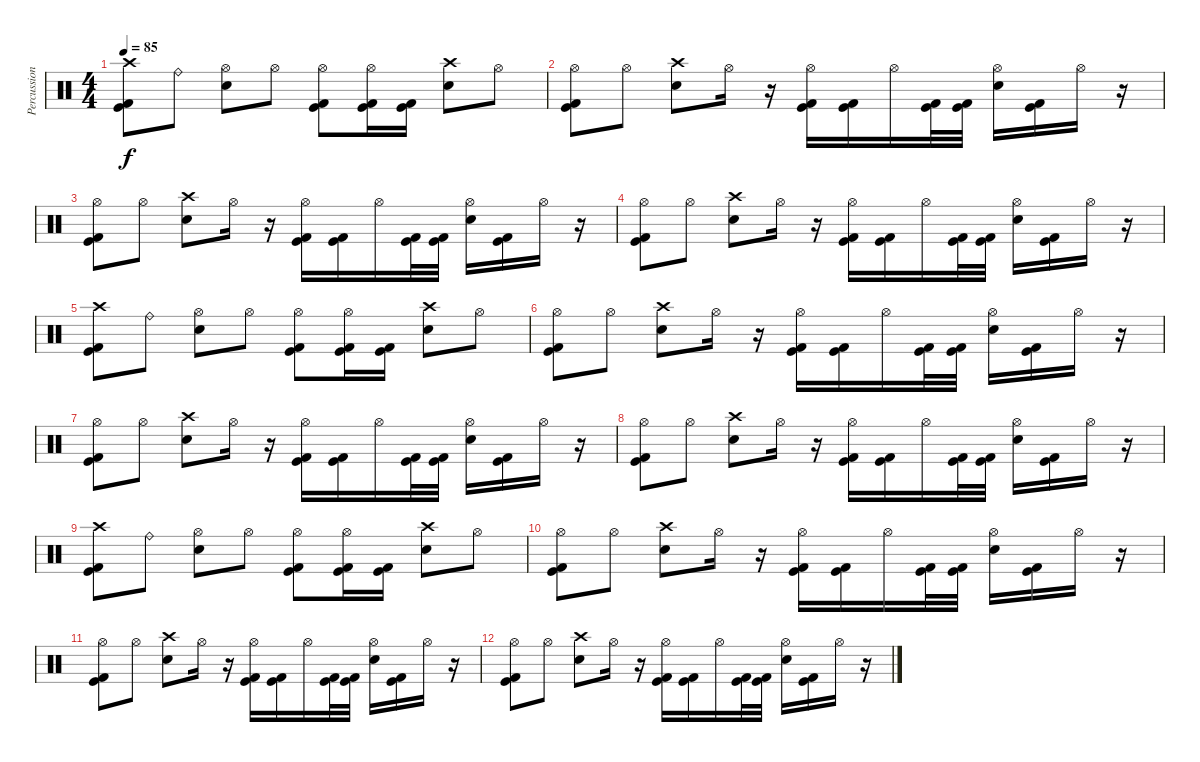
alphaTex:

\track ("Percussion" "Percussion") {instrument percussion}
\staff {score}
\articulation defaults
\ts (4 4)
\tempo 85
\clef neutral
\ks c
("Crash high (hit)" "Kick (hit) 2" "Kick (hit)").8{dy f} "Ride (bell)".8 ("Hi-Hat (open)" "Electric Snare (hit)").8 "Hi-Hat (open)".8 ("Hi-Hat (open)" "Kick (hit) 2" "Kick (hit)").8 ("Hi-Hat (open)" "Kick (hit) 2" "Kick (hit)").16 ("Kick (hit) 2" "Kick (hit)").16 ("Crash high (hit)" "Electric Snare (hit)").8 "Hi-Hat (open)".8 |
("Hi-Hat (open)" "Kick (hit) 2" "Kick (hit)").8 "Hi-Hat (open)".8 ("Crash high (hit)" "Electric Snare (hit)").8 "Hi-Hat (open)".16 r.16 ("Hi-Hat (open)" "Kick (hit) 2" "Kick (hit)").16 ("Kick (hit) 2" "Kick (hit)").16 "Hi-Hat (open)".16 ("Kick (hit) 2" "Kick (hit)").32 ("Kick (hit) 2" "Kick (hit)").32 ("Hi-Hat (open)" "Electric Snare (hit)").16 ("Kick (hit) 2" "Kick (hit)").16 "Hi-Hat (open)".16 r.16 |
("Hi-Hat (open)" "Kick (hit) 2" "Kick (hit)").8 "Hi-Hat (open)".8 ("Crash high (hit)" "Electric Snare (hit)").8 "Hi-Hat (open)".16 r.16 ("Hi-Hat (open)" "Kick (hit) 2" "Kick (hit)").16 ("Kick (hit) 2" "Kick (hit)").16 "Hi-Hat (open)".16 ("Kick (hit) 2" "Kick (hit)").32 ("Kick (hit) 2" "Kick (hit)").32 ("Hi-Hat (open)" "Electric Snare (hit)").16 ("Kick (hit) 2" "Kick (hit)").16 "Hi-Hat (open)".16 r.16 |
("Hi-Hat (open)" "Kick (hit) 2" "Kick (hit)").8 "Hi-Hat (open)".8 ("Crash high (hit)" "Electric Snare (hit)").8 "Hi-Hat (open)".16 r.16 ("Hi-Hat (open)" "Kick (hit) 2" "Kick (hit)").16 ("Kick (hit) 2" "Kick (hit)").16 "Hi-Hat (open)".16 ("Kick (hit) 2" "Kick (hit)").32 ("Kick (hit) 2" "Kick (hit)").32 ("Hi-Hat (open)" "Electric Snare (hit)").16 ("Kick (hit) 2" "Kick (hit)").16 "Hi-Hat (open)".16 r.16 |
("Crash high (hit)" "Kick (hit) 2" "Kick (hit)").8 "Ride (bell)".8 ("Hi-Hat (open)" "Electric Snare (hit)").8 "Hi-Hat (open)".8 ("Hi-Hat (open)" "Kick (hit) 2" "Kick (hit)").8 ("Hi-Hat (open)" "Kick (hit) 2" "Kick (hit)").16 ("Kick (hit) 2" "Kick (hit)").16 ("Crash high (hit)" "Electric Snare (hit)").8 "Hi-Hat (open)".8 |
("Hi-Hat (open)" "Kick (hit) 2" "Kick (hit)").8 "Hi-Hat (open)".8 ("Crash high (hit)" "Electric Snare (hit)").8 "Hi-Hat (open)".16 r.16 ("Hi-Hat (open)" "Kick (hit) 2" "Kick (hit)").16 ("Kick (hit) 2" "Kick (hit)").16 "Hi-Hat (open)".16 ("Kick (hit) 2" "Kick (hit)").32 ("Kick (hit) 2" "Kick (hit)").32 ("Hi-Hat (open)" "Electric Snare (hit)").16 ("Kick (hit) 2" "Kick (hit)").16 "Hi-Hat (open)".16 r.16 |
("Hi-Hat (open)" "Kick (hit) 2" "Kick (hit)").8 "Hi-Hat (open)".8 ("Crash high (hit)" "Electric Snare (hit)").8 "Hi-Hat (open)".16 r.16 ("Hi-Hat (open)" "Kick (hit) 2" "Kick (hit)").16 ("Kick (hit) 2" "Kick (hit)").16 "Hi-Hat (open)".16 ("Kick (hit) 2" "Kick (hit)").32 ("Kick (hit) 2" "Kick (hit)").32 ("Hi-Hat (open)" "Electric Snare (hit)").16 ("Kick (hit) 2" "Kick (hit)").16 "Hi-Hat (open)".16 r.16 |
("Hi-Hat (open)" "Kick (hit) 2" "Kick (hit)").8 "Hi-Hat (open)".8 ("Crash high (hit)" "Electric Snare (hit)").8 "Hi-Hat (open)".16 r.16 ("Hi-Hat (open)" "Kick (hit) 2" "Kick (hit)").16 ("Kick (hit) 2" "Kick (hit)").16 "Hi-Hat (open)".16 ("Kick (hit) 2" "Kick (hit)").32 ("Kick (hit) 2" "Kick (hit)").32 ("Hi-Hat (open)" "Electric Snare (hit)").16 ("Kick (hit) 2" "Kick (hit)").16 "Hi-Hat (open)".16 r.16 |
("Crash high (hit)" "Kick (hit) 2" "Kick (hit)").8 "Ride (bell)".8 ("Hi-Hat (open)" "Electric Snare (hit)").8 "Hi-Hat (open)".8 ("Hi-Hat (open)" "Kick (hit) 2" "Kick (hit)").8 ("Hi-Hat (open)" "Kick (hit) 2" "Kick (hit)").16 ("Kick (hit) 2" "Kick (hit)").16 ("Crash high (hit)" "Electric Snare (hit)").8 "Hi-Hat (open)".8 |
("Hi-Hat (open)" "Kick (hit) 2" "Kick (hit)").8 "Hi-Hat (open)".8 ("Crash high (hit)" "Electric Snare (hit)").8 "Hi-Hat (open)".16 r.16 ("Hi-Hat (open)" "Kick (hit) 2" "Kick (hit)").16 ("Kick (hit) 2" "Kick (hit)").16 "Hi-Hat (open)".16 ("Kick (hit) 2" "Kick (hit)").32 ("Kick (hit) 2" "Kick (hit)").32 ("Hi-Hat (open)" "Electric Snare (hit)").16 ("Kick (hit) 2" "Kick (hit)").16 "Hi-Hat (open)".16 r.16 |
("Hi-Hat (open)" "Kick (hit) 2" "Kick (hit)").8 "Hi-Hat (open)".8 ("Crash high (hit)" "Electric Snare (hit)").8 "Hi-Hat (open)".16 r.16 ("Hi-Hat (open)" "Kick (hit) 2" "Kick (hit)").16 ("Kick (hit) 2" "Kick (hit)").16 "Hi-Hat (open)".16 ("Kick (hit) 2" "Kick (hit)").32 ("Kick (hit) 2" "Kick (hit)").32 ("Hi-Hat (open)" "Electric Snare (hit)").16 ("Kick (hit) 2" "Kick (hit)").16 "Hi-Hat (open)".16 r.16 |
("Hi-Hat (open)" "Kick (hit) 2" "Kick (hit)").8 "Hi-Hat (open)".8 ("Crash high (hit)" "Electric Snare (hit)").8 "Hi-Hat (open)".16 r.16 ("Hi-Hat (open)" "Kick (hit) 2" "Kick (hit)").16 ("Kick (hit) 2" "Kick (hit)").16 "Hi-Hat (open)".16 ("Kick (hit) 2" "Kick (hit)").32 ("Kick (hit) 2" "Kick (hit)").32 ("Hi-Hat (open)" "Electric Snare (hit)").16 ("Kick (hit) 2" "Kick (hit)").16 "Hi-Hat (open)".16 r.16
